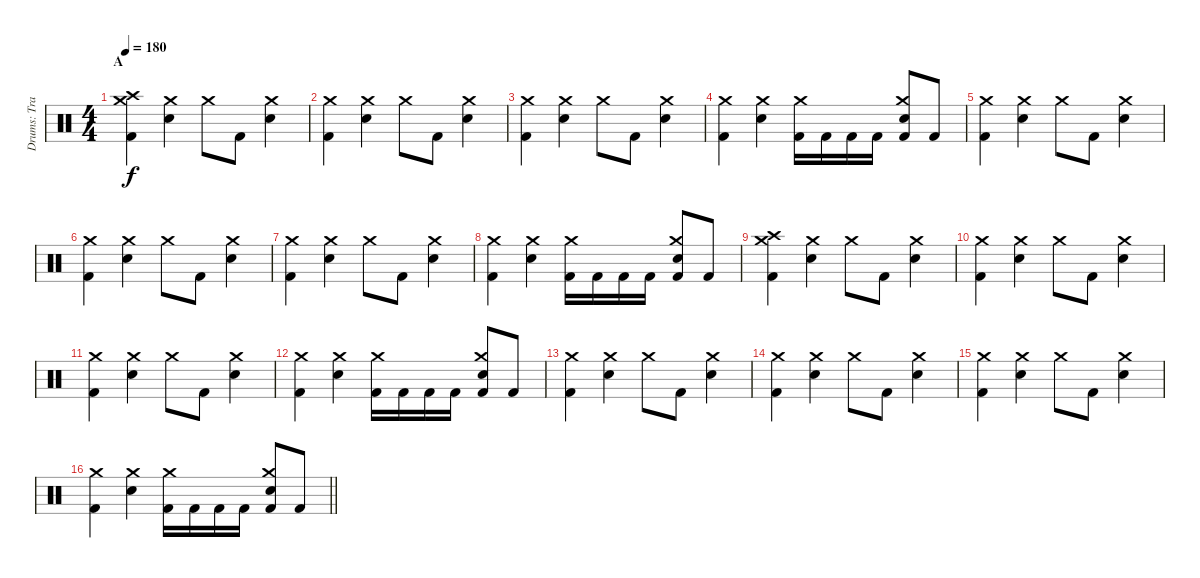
\track ("Drums: Travis Clarke" "Drums: Tra") {instrument percussion}
\staff {score}
\articulation defaults
\ts (4 4)
\section ("" "A")
\tempo 180
\clef neutral
\ks c
("Kick (hit) 2" "Crash high (hit)" "Crash medium (hit)").4{dy f} ("Snare (hit) 2" "Crash medium (hit)").4 "Crash medium (hit)".8 "Kick (hit) 2".8 ("Snare (hit) 2" "Crash medium (hit)").4 |
("Kick (hit) 2" "Crash medium (hit)").4 ("Snare (hit) 2" "Crash medium (hit)").4 "Crash medium (hit)".8 "Kick (hit) 2".8 ("Snare (hit) 2" "Crash medium (hit)").4 |
("Kick (hit) 2" "Crash medium (hit)").4 ("Snare (hit) 2" "Crash medium (hit)").4 "Crash medium (hit)".8 "Kick (hit) 2".8 ("Snare (hit) 2" "Crash medium (hit)").4 |
("Kick (hit) 2" "Crash medium (hit)").4 ("Snare (hit) 2" "Crash medium (hit)").4 ("Kick (hit) 2" "Crash medium (hit)").16 "Kick (hit) 2".16 "Kick (hit) 2".16 "Kick (hit) 2".16 ("Kick (hit) 2" "Snare (hit) 2" "Crash medium (hit)").8 "Kick (hit) 2".8 |
("Kick (hit) 2" "Crash medium (hit)").4 ("Snare (hit) 2" "Crash medium (hit)").4 "Crash medium (hit)".8 "Kick (hit) 2".8 ("Snare (hit) 2" "Crash medium (hit)").4 |
("Kick (hit) 2" "Crash medium (hit)").4 ("Snare (hit) 2" "Crash medium (hit)").4 "Crash medium (hit)".8 "Kick (hit) 2".8 ("Snare (hit) 2" "Crash medium (hit)").4 |
("Kick (hit) 2" "Crash medium (hit)").4 ("Snare (hit) 2" "Crash medium (hit)").4 "Crash medium (hit)".8 "Kick (hit) 2".8 ("Snare (hit) 2" "Crash medium (hit)").4 |
("Kick (hit) 2" "Crash medium (hit)").4 ("Snare (hit) 2" "Crash medium (hit)").4 ("Kick (hit) 2" "Crash medium (hit)").16 "Kick (hit) 2".16 "Kick (hit) 2".16 "Kick (hit) 2".16 ("Kick (hit) 2" "Snare (hit) 2" "Crash medium (hit)").8 "Kick (hit) 2".8 |
("Kick (hit) 2" "Crash high (hit)" "Crash medium (hit)").4 ("Snare (hit) 2" "Crash medium (hit)").4 "Crash medium (hit)".8 "Kick (hit) 2".8 ("Snare (hit) 2" "Crash medium (hit)").4 |
("Kick (hit) 2" "Crash medium (hit)").4 ("Snare (hit) 2" "Crash medium (hit)").4 "Crash medium (hit)".8 "Kick (hit) 2".8 ("Snare (hit) 2" "Crash medium (hit)").4 |
("Kick (hit) 2" "Crash medium (hit)").4 ("Snare (hit) 2" "Crash medium (hit)").4 "Crash medium (hit)".8 "Kick (hit) 2".8 ("Snare (hit) 2" "Crash medium (hit)").4 |
("Kick (hit) 2" "Crash medium (hit)").4 ("Snare (hit) 2" "Crash medium (hit)").4 ("Kick (hit) 2" "Crash medium (hit)").16 "Kick (hit) 2".16 "Kick (hit) 2".16 "Kick (hit) 2".16 ("Kick (hit) 2" "Snare (hit) 2" "Crash medium (hit)").8 "Kick (hit) 2".8 |
("Kick (hit) 2" "Crash medium (hit)").4 ("Snare (hit) 2" "Crash medium (hit)").4 "Crash medium (hit)".8 "Kick (hit) 2".8 ("Snare (hit) 2" "Crash medium (hit)").4 |
("Kick (hit) 2" "Crash medium (hit)").4 ("Snare (hit) 2" "Crash medium (hit)").4 "Crash medium (hit)".8 "Kick (hit) 2".8 ("Snare (hit) 2" "Crash medium (hit)").4 |
("Kick (hit) 2" "Crash medium (hit)").4 ("Snare (hit) 2" "Crash medium (hit)").4 "Crash medium (hit)".8 "Kick (hit) 2".8 ("Snare (hit) 2" "Crash medium (hit)").4 |
\barLineRight lightlight
("Kick (hit) 2" "Crash medium (hit)").4 ("Snare (hit) 2" "Crash medium (hit)").4 ("Kick (hit) 2" "Crash medium (hit)").16 "Kick (hit) 2".16 "Kick (hit) 2".16 "Kick (hit) 2".16 ("Kick (hit) 2" "Snare (hit) 2" "Crash medium (hit)").8 "Kick (hit) 2".8
